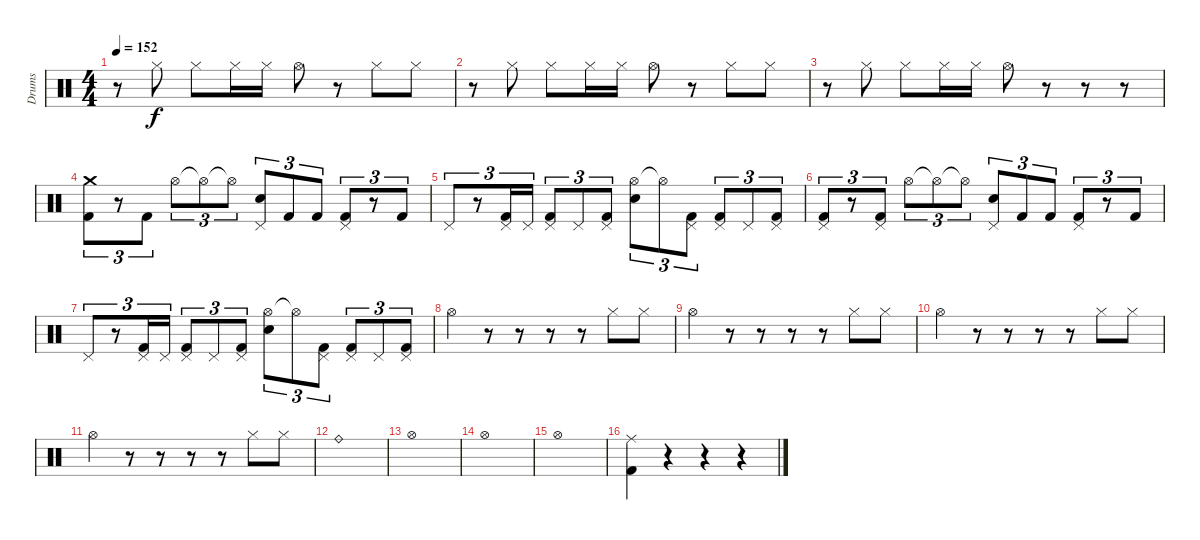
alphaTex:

\track ("Drums" "Drums") {instrument percussion}
\staff {score}
\articulation defaults
\ts (4 4)
\tempo 152
\clef neutral
\ks c
r.8{dy f} "Hi-Hat (closed)".8 "Hi-Hat (closed)".8 "Hi-Hat (closed)".16 "Hi-Hat (closed)".16 "Hi-Hat (open)".8 r.8 "Hi-Hat (closed)".8 "Hi-Hat (closed)".8 |
r.8 "Hi-Hat (closed)".8 "Hi-Hat (closed)".8 "Hi-Hat (closed)".16 "Hi-Hat (closed)".16 "Hi-Hat (open)".8 r.8 "Hi-Hat (closed)".8 "Hi-Hat (closed)".8 |
r.8 "Hi-Hat (closed)".8 "Hi-Hat (closed)".8 "Hi-Hat (closed)".16 "Hi-Hat (closed)".16 "Hi-Hat (open)".8 r.8 r.8 r.8 |
("Crash medium (hit)" "Kick (hit) 2").8{tu (3 2)} r.8{tu (3 2)} "Kick (hit) 2".8{tu (3 2)} "Hi-Hat (open)".8{tu (3 2)} "Hi-Hat (open)"{t}.8{tu (3 2)} "Hi-Hat (open)"{t}.8{tu (3 2)} ("Pedal Hi-Hat (hit)" "Electric Snare (hit)").8{tu (3 2)} "Kick (hit) 2".8{tu (3 2)} "Kick (hit) 2".8{tu (3 2)} ("Pedal Hi-Hat (hit)" "Kick (hit) 2").8{tu (3 2)} r.8{tu (3 2)} "Kick (hit) 2".8{tu (3 2)} |
"Pedal Hi-Hat (hit)".8{tu (3 2)} r.8{tu (3 2)} ("Pedal Hi-Hat (hit)" "Kick (hit) 2").16{tu (3 2)} "Pedal Hi-Hat (hit)".16{tu (3 2)} ("Pedal Hi-Hat (hit)" "Kick (hit) 2").8{tu (3 2)} "Pedal Hi-Hat (hit)".8{tu (3 2)} ("Pedal Hi-Hat (hit)" "Kick (hit) 2").8{tu (3 2)} ("Hi-Hat (open)" "Electric Snare (hit)").8{tu (3 2)} "Hi-Hat (open)"{t}.8{tu (3 2)} ("Pedal Hi-Hat (hit)" "Kick (hit) 2").8{tu (3 2)} ("Pedal Hi-Hat (hit)" "Kick (hit) 2").8{tu (3 2)} "Pedal Hi-Hat (hit)".8{tu (3 2)} ("Pedal Hi-Hat (hit)" "Kick (hit) 2").8{tu (3 2)} |
("Pedal Hi-Hat (hit)" "Kick (hit) 2").8{tu (3 2)} r.8{tu (3 2)} ("Pedal Hi-Hat (hit)" "Kick (hit) 2").8{tu (3 2)} "Hi-Hat (open)".8{tu (3 2)} "Hi-Hat (open)"{t}.8{tu (3 2)} "Hi-Hat (open)"{t}.8{tu (3 2)} ("Pedal Hi-Hat (hit)" "Electric Snare (hit)").8{tu (3 2)} "Kick (hit) 2".8{tu (3 2)} "Kick (hit) 2".8{tu (3 2)} ("Pedal Hi-Hat (hit)" "Kick (hit) 2").8{tu (3 2)} r.8{tu (3 2)} "Kick (hit) 2".8{tu (3 2)} |
"Pedal Hi-Hat (hit)".8{tu (3 2)} r.8{tu (3 2)} ("Pedal Hi-Hat (hit)" "Kick (hit) 2").16{tu (3 2)} "Pedal Hi-Hat (hit)".16{tu (3 2)} ("Pedal Hi-Hat (hit)" "Kick (hit) 2").8{tu (3 2)} "Pedal Hi-Hat (hit)".8{tu (3 2)} ("Pedal Hi-Hat (hit)" "Kick (hit) 2").8{tu (3 2)} ("Hi-Hat (open)" "Electric Snare (hit)").8{tu (3 2)} "Hi-Hat (open)"{t}.8{tu (3 2)} ("Pedal Hi-Hat (hit)" "Kick (hit) 2").8{tu (3 2)} ("Pedal Hi-Hat (hit)" "Kick (hit) 2").8{tu (3 2)} "Pedal Hi-Hat (hit)".8{tu (3 2)} ("Pedal Hi-Hat (hit)" "Kick (hit) 2").8{tu (3 2)} |
"Hi-Hat (open)".4 r.8 r.8 r.8 r.8 "Hi-Hat (closed)".8 "Hi-Hat (closed)".8 |
"Hi-Hat (open)".4 r.8 r.8 r.8 r.8 "Hi-Hat (closed)".8 "Hi-Hat (closed)".8 |
"Hi-Hat (open)".4 r.8 r.8 r.8 r.8 "Hi-Hat (closed)".8 "Hi-Hat (closed)".8 |
"Hi-Hat (open)".4 r.8 r.8 r.8 r.8 "Hi-Hat (closed)".8 "Hi-Hat (closed)".8 |
"Ride (bell)".1 |
"Hi-Hat (open)".1 |
"Hi-Hat (open)".1 |
"Hi-Hat (open)".1 |
("Ride (middle)" "Kick (hit) 2").4 r.4 r.4 r.4
